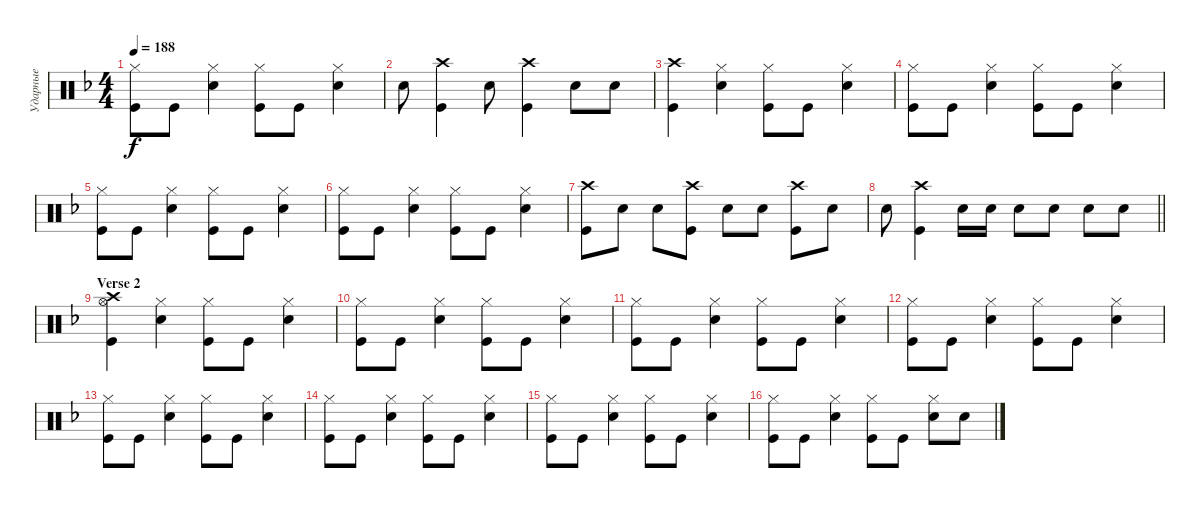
\track ("Ударные" "Ударные") {instrument percussion}
\staff {score}
\articulation defaults
\ts (4 4)
\tempo 188
\clef neutral
\ks dminor
("Kick (hit)" "Hi-Hat (closed)").8{dy f} "Kick (hit)".8 ("Snare (hit) 2" "Hi-Hat (closed)").4 ("Kick (hit)" "Hi-Hat (closed)").8 "Kick (hit)".8 ("Hi-Hat (closed)" "Snare (hit) 2").4 |
"Snare (hit) 2".8 ("Kick (hit)" "Crash high (hit)").4 "Snare (hit) 2".8 ("Kick (hit)" "Crash high (hit)").4 "Snare (hit) 2".8 "Snare (hit) 2".8 |
("Kick (hit)" "Crash high (hit)").4 ("Snare (hit) 2" "Hi-Hat (closed)").4 ("Kick (hit)" "Hi-Hat (closed)").8 "Kick (hit)".8 ("Hi-Hat (closed)" "Snare (hit) 2").4 |
("Kick (hit)" "Hi-Hat (closed)").8 "Kick (hit)".8 ("Snare (hit) 2" "Hi-Hat (closed)").4 ("Kick (hit)" "Hi-Hat (closed)").8 "Kick (hit)".8 ("Hi-Hat (closed)" "Snare (hit) 2").4 |
("Kick (hit)" "Hi-Hat (closed)").8 "Kick (hit)".8 ("Snare (hit) 2" "Hi-Hat (closed)").4 ("Kick (hit)" "Hi-Hat (closed)").8 "Kick (hit)".8 ("Hi-Hat (closed)" "Snare (hit) 2").4 |
("Kick (hit)" "Hi-Hat (closed)").8 "Kick (hit)".8 ("Snare (hit) 2" "Hi-Hat (closed)").4 ("Kick (hit)" "Hi-Hat (closed)").8 "Kick (hit)".8 ("Hi-Hat (closed)" "Snare (hit) 2").4 |
("Kick (hit)" "Crash high (hit)").8 "Snare (hit) 2".8 "Snare (hit) 2".8 ("Kick (hit)" "Crash high (hit)").8 "Snare (hit) 2".8 "Snare (hit) 2".8 ("Kick (hit)" "Crash high (hit)").8 "Snare (hit) 2".8 |
\barLineRight lightlight "Snare (hit) 2".8
("Kick (hit)" "Crash high (hit)").4 "Snare (hit) 2".16 "Snare (hit) 2".16 "Snare (hit) 2".8 "Snare (hit) 2".8 "Snare (hit) 2".8 "Snare (hit) 2".8 |
\section ("" "Verse 2")
("Kick (hit)" "Crash high (hit)" "Hi-Hat (open)").4 ("Snare (hit) 2" "Hi-Hat (closed)").4 ("Kick (hit)" "Hi-Hat (closed)").8 "Kick (hit)".8 ("Hi-Hat (closed)" "Snare (hit) 2").4 |
("Kick (hit)" "Hi-Hat (closed)").8 "Kick (hit)".8 ("Snare (hit) 2" "Hi-Hat (closed)").4 ("Kick (hit)" "Hi-Hat (closed)").8 "Kick (hit)".8 ("Hi-Hat (closed)" "Snare (hit) 2").4 |
("Kick (hit)" "Hi-Hat (closed)").8 "Kick (hit)".8 ("Snare (hit) 2" "Hi-Hat (closed)").4 ("Kick (hit)" "Hi-Hat (closed)").8 "Kick (hit)".8 ("Hi-Hat (closed)" "Snare (hit) 2").4 |
("Kick (hit)" "Hi-Hat (closed)").8 "Kick (hit)".8 ("Snare (hit) 2" "Hi-Hat (closed)").4 ("Kick (hit)" "Hi-Hat (closed)").8 "Kick (hit)".8 ("Hi-Hat (closed)" "Snare (hit) 2").4 |
("Kick (hit)" "Hi-Hat (closed)").8 "Kick (hit)".8 ("Snare (hit) 2" "Hi-Hat (closed)").4 ("Kick (hit)" "Hi-Hat (closed)").8 "Kick (hit)".8 ("Hi-Hat (closed)" "Snare (hit) 2").4 |
("Kick (hit)" "Hi-Hat (closed)").8 "Kick (hit)".8 ("Snare (hit) 2" "Hi-Hat (closed)").4 ("Kick (hit)" "Hi-Hat (closed)").8 "Kick (hit)".8 ("Hi-Hat (closed)" "Snare (hit) 2").4 |
("Kick (hit)" "Hi-Hat (closed)").8 "Kick (hit)".8 ("Snare (hit) 2" "Hi-Hat (closed)").4 ("Kick (hit)" "Hi-Hat (closed)").8 "Kick (hit)".8 ("Hi-Hat (closed)" "Snare (hit) 2").4 |
("Kick (hit)" "Hi-Hat (closed)").8 "Kick (hit)".8 ("Snare (hit) 2" "Hi-Hat (closed)").4 ("Kick (hit)" "Hi-Hat (closed)").8 "Kick (hit)".8 ("Hi-Hat (closed)" "Snare (hit) 2").8 "Snare (hit) 2".8
